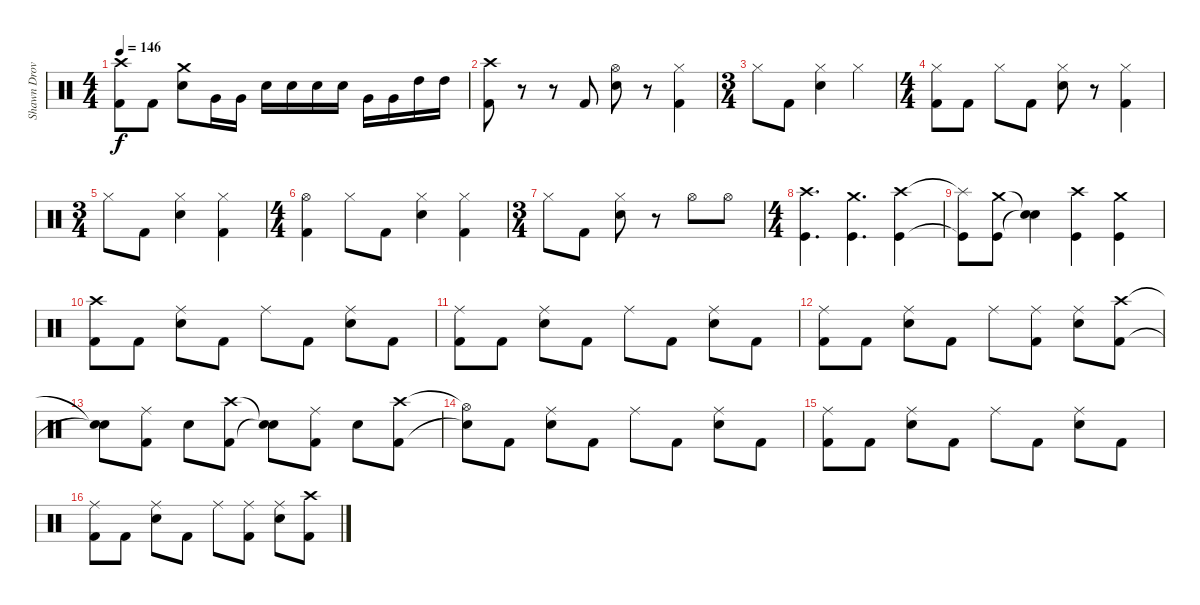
\track ("Shawn Drover" "Shawn Drov") {instrument percussion}
\staff {score}
\articulation defaults
\ts (4 4)
\tempo 146
\clef neutral
\ks c
("Crash high (hit)"{t} "Kick (hit) 2"{t}).8{dy f} "Kick (hit) 2".8 ("Crash medium (hit)" "Snare (hit) 2").8 "Very Low Tom (hit)".16 "Very Low Tom (hit)".16 "Snare (hit) 2".16 "Snare (hit) 2".16 "Snare (hit) 2".16 "Snare (hit) 2".16 "Very Low Tom (hit)".16 "Very Low Tom (hit)".16 "High Tom (hit)".16 "High Tom (hit)".16 |
("Crash high (hit)" "Kick (hit) 2").8 r.8 r.8 "Kick (hit) 2".8 ("Hi-Hat (open)" "Snare (hit) 2").8 r.8 ("Hi-Hat (closed)" "Kick (hit) 2").4 |
\ts (3 4)
"Hi-Hat (closed)".8 "Kick (hit) 2".8 ("Hi-Hat (closed)" "Snare (hit) 2").4 "Hi-Hat (closed)".4 |
\ts (4 4)
("Hi-Hat (closed)" "Kick (hit) 2").8 "Kick (hit) 2".8 "Hi-Hat (closed)".8 "Kick (hit) 2".8 ("Hi-Hat (closed)" "Snare (hit) 2").8 r.8 ("Hi-Hat (closed)" "Kick (hit) 2").4 |
\ts (3 4)
"Hi-Hat (closed)".8 "Kick (hit) 2".8 ("Hi-Hat (closed)" "Snare (hit) 2").4 ("Hi-Hat (closed)" "Kick (hit) 2").4 |
\ts (4 4)
("Hi-Hat (open)" "Kick (hit) 2").4 "Hi-Hat (closed)".8 "Kick (hit) 2".8 ("Hi-Hat (closed)" "Snare (hit) 2").4 ("Hi-Hat (closed)" "Kick (hit) 2").4 |
\ts (3 4)
"Hi-Hat (closed)".8 "Kick (hit) 2".8 ("Hi-Hat (closed)" "Snare (hit) 2").8 r.8 "Hi-Hat (open)".8 "Hi-Hat (open)".8 |
\ts (4 4)
("Crash high (hit)" "Kick (hit)").4{d} ("Crash medium (hit)" "Kick (hit)").4{d} ("Crash high (hit)" "Kick (hit)").4 |
("Splash (hit)"{t} "Kick (hit)"{t}).8 ("Crash medium (hit)" "Kick (hit)").8 ("Snare (hit)"{t} "Snare (hit)"{t}).4 ("Crash high (hit)" "Kick (hit)").4 ("Crash medium (hit)" "Kick (hit)").4 |
("Crash high (hit)" "Kick (hit) 2").8 "Kick (hit) 2".8 ("Ride (middle)" "Snare (hit) 2").8 "Kick (hit) 2".8 "Ride (middle)".8 "Kick (hit) 2".8 ("Ride (middle)" "Snare (hit) 2").8 "Kick (hit) 2".8 |
("Ride (middle)" "Kick (hit) 2").8 "Kick (hit) 2".8 ("Ride (middle)" "Snare (hit) 2").8 "Kick (hit) 2".8 "Ride (middle)".8 "Kick (hit) 2".8 ("Ride (middle)" "Snare (hit) 2").8 "Kick (hit) 2".8 |
("Ride (middle)" "Kick (hit) 2").8 "Kick (hit) 2".8 ("Ride (middle)" "Snare (hit) 2").8 "Kick (hit) 2".8 "Ride (middle)".8 ("Ride (middle)" "Kick (hit) 2").8 ("Ride (middle)" "Snare (hit) 2").8 ("Crash high (hit)" "Kick (hit) 2").8 |
("Snare (hit)"{t} "Snare (hit)"{t}).8 ("Ride (middle)" "Kick (hit) 2").8 "Snare (hit) 2".8 ("Crash high (hit)" "Kick (hit) 2").8 ("Snare (hit)"{t} "Snare (hit)"{t}).8 ("Ride (middle)" "Kick (hit) 2").8 "Snare (hit) 2".8 ("Crash high (hit)" "Kick (hit) 2").8 |
("Hi-Hat (open)"{t} "Snare (hit)"{t}).8 "Kick (hit) 2".8 ("Ride (middle)" "Snare (hit) 2").8 "Kick (hit) 2".8 "Ride (middle)".8 "Kick (hit) 2".8 ("Ride (middle)" "Snare (hit) 2").8 "Kick (hit) 2".8 |
("Ride (middle)" "Kick (hit) 2").8 "Kick (hit) 2".8 ("Ride (middle)" "Snare (hit) 2").8 "Kick (hit) 2".8 "Ride (middle)".8 "Kick (hit) 2".8 ("Ride (middle)" "Snare (hit) 2").8 "Kick (hit) 2".8 |
("Ride (middle)" "Kick (hit) 2").8 "Kick (hit) 2".8 ("Ride (middle)" "Snare (hit) 2").8 "Kick (hit) 2".8 "Ride (middle)".8 ("Ride (middle)" "Kick (hit) 2").8 ("Ride (middle)" "Snare (hit) 2").8 ("Crash high (hit)" "Kick (hit) 2").8
